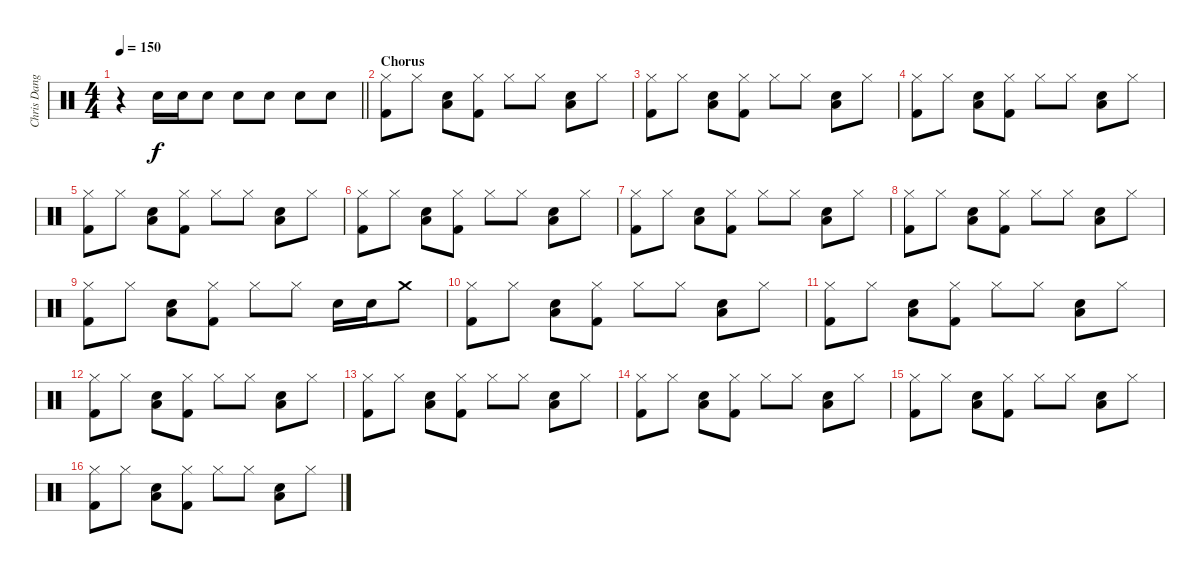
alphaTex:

\track ("Chris Dangerous" "Chris Dang") {instrument percussion}
\staff {score}
\articulation defaults
\ts (4 4)
\tempo 150
\clef neutral
\barLineRight lightlight
\ks c
r.4{dy f} "Snare (hit) 2".16 "Snare (hit) 2".16 "Snare (hit) 2".8 "Snare (hit) 2".8 "Snare (hit) 2".8 "Snare (hit) 2".8 "Snare (hit) 2".8 |
\section ("" "Chorus")
("Hi-Hat (closed)" "Kick (hit) 2").8 "Hi-Hat (closed)".8 ("Low Floor Tom (hit)" "Snare (hit) 2").8 ("Hi-Hat (closed)" "Kick (hit) 2").8 "Hi-Hat (closed)".8 "Hi-Hat (closed)".8 ("Low Floor Tom (hit)" "Snare (hit) 2").8 "Hi-Hat (closed)".8 |
("Hi-Hat (closed)" "Kick (hit) 2").8 "Hi-Hat (closed)".8 ("Low Floor Tom (hit)" "Snare (hit) 2").8 ("Hi-Hat (closed)" "Kick (hit) 2").8 "Hi-Hat (closed)".8 "Hi-Hat (closed)".8 ("Low Floor Tom (hit)" "Snare (hit) 2").8 "Hi-Hat (closed)".8 |
("Hi-Hat (closed)" "Kick (hit) 2").8 "Hi-Hat (closed)".8 ("Low Floor Tom (hit)" "Snare (hit) 2").8 ("Hi-Hat (closed)" "Kick (hit) 2").8 "Hi-Hat (closed)".8 "Hi-Hat (closed)".8 ("Low Floor Tom (hit)" "Snare (hit) 2").8 "Hi-Hat (closed)".8 |
("Hi-Hat (closed)" "Kick (hit) 2").8 "Hi-Hat (closed)".8 ("Low Floor Tom (hit)" "Snare (hit) 2").8 ("Hi-Hat (closed)" "Kick (hit) 2").8 "Hi-Hat (closed)".8 "Hi-Hat (closed)".8 ("Low Floor Tom (hit)" "Snare (hit) 2").8 "Hi-Hat (closed)".8 |
("Hi-Hat (closed)" "Kick (hit) 2").8 "Hi-Hat (closed)".8 ("Low Floor Tom (hit)" "Snare (hit) 2").8 ("Hi-Hat (closed)" "Kick (hit) 2").8 "Hi-Hat (closed)".8 "Hi-Hat (closed)".8 ("Low Floor Tom (hit)" "Snare (hit) 2").8 "Hi-Hat (closed)".8 |
("Hi-Hat (closed)" "Kick (hit) 2").8 "Hi-Hat (closed)".8 ("Low Floor Tom (hit)" "Snare (hit) 2").8 ("Hi-Hat (closed)" "Kick (hit) 2").8 "Hi-Hat (closed)".8 "Hi-Hat (closed)".8 ("Low Floor Tom (hit)" "Snare (hit) 2").8 "Hi-Hat (closed)".8 |
("Hi-Hat (closed)" "Kick (hit) 2").8 "Hi-Hat (closed)".8 ("Low Floor Tom (hit)" "Snare (hit) 2").8 ("Hi-Hat (closed)" "Kick (hit) 2").8 "Hi-Hat (closed)".8 "Hi-Hat (closed)".8 ("Low Floor Tom (hit)" "Snare (hit) 2").8 "Hi-Hat (closed)".8 |
("Hi-Hat (closed)" "Kick (hit) 2").8 "Hi-Hat (closed)".8 ("Low Floor Tom (hit)" "Snare (hit) 2").8 ("Hi-Hat (closed)" "Kick (hit) 2").8 "Hi-Hat (closed)".8 "Hi-Hat (closed)".8 "Snare (hit) 2".16 "Snare (hit) 2".16 "Crash medium (hit)".8 |
("Hi-Hat (closed)" "Kick (hit) 2").8 "Hi-Hat (closed)".8 ("Low Floor Tom (hit)" "Snare (hit) 2").8 ("Hi-Hat (closed)" "Kick (hit) 2").8 "Hi-Hat (closed)".8 "Hi-Hat (closed)".8 ("Low Floor Tom (hit)" "Snare (hit) 2").8 "Hi-Hat (closed)".8 |
("Hi-Hat (closed)" "Kick (hit) 2").8 "Hi-Hat (closed)".8 ("Low Floor Tom (hit)" "Snare (hit) 2").8 ("Hi-Hat (closed)" "Kick (hit) 2").8 "Hi-Hat (closed)".8 "Hi-Hat (closed)".8 ("Low Floor Tom (hit)" "Snare (hit) 2").8 "Hi-Hat (closed)".8 |
("Hi-Hat (closed)" "Kick (hit) 2").8 "Hi-Hat (closed)".8 ("Low Floor Tom (hit)" "Snare (hit) 2").8 ("Hi-Hat (closed)" "Kick (hit) 2").8 "Hi-Hat (closed)".8 "Hi-Hat (closed)".8 ("Low Floor Tom (hit)" "Snare (hit) 2").8 "Hi-Hat (closed)".8 |
("Hi-Hat (closed)" "Kick (hit) 2").8 "Hi-Hat (closed)".8 ("Low Floor Tom (hit)" "Snare (hit) 2").8 ("Hi-Hat (closed)" "Kick (hit) 2").8 "Hi-Hat (closed)".8 "Hi-Hat (closed)".8 ("Low Floor Tom (hit)" "Snare (hit) 2").8 "Hi-Hat (closed)".8 |
("Hi-Hat (closed)" "Kick (hit) 2").8 "Hi-Hat (closed)".8 ("Low Floor Tom (hit)" "Snare (hit) 2").8 ("Hi-Hat (closed)" "Kick (hit) 2").8 "Hi-Hat (closed)".8 "Hi-Hat (closed)".8 ("Low Floor Tom (hit)" "Snare (hit) 2").8 "Hi-Hat (closed)".8 |
("Hi-Hat (closed)" "Kick (hit) 2").8 "Hi-Hat (closed)".8 ("Low Floor Tom (hit)" "Snare (hit) 2").8 ("Hi-Hat (closed)" "Kick (hit) 2").8 "Hi-Hat (closed)".8 "Hi-Hat (closed)".8 ("Low Floor Tom (hit)" "Snare (hit) 2").8 "Hi-Hat (closed)".8 |
("Hi-Hat (closed)" "Kick (hit) 2").8 "Hi-Hat (closed)".8 ("Low Floor Tom (hit)" "Snare (hit) 2").8 ("Hi-Hat (closed)" "Kick (hit) 2").8 "Hi-Hat (closed)".8 "Hi-Hat (closed)".8 ("Low Floor Tom (hit)" "Snare (hit) 2").8 "Hi-Hat (closed)".8
